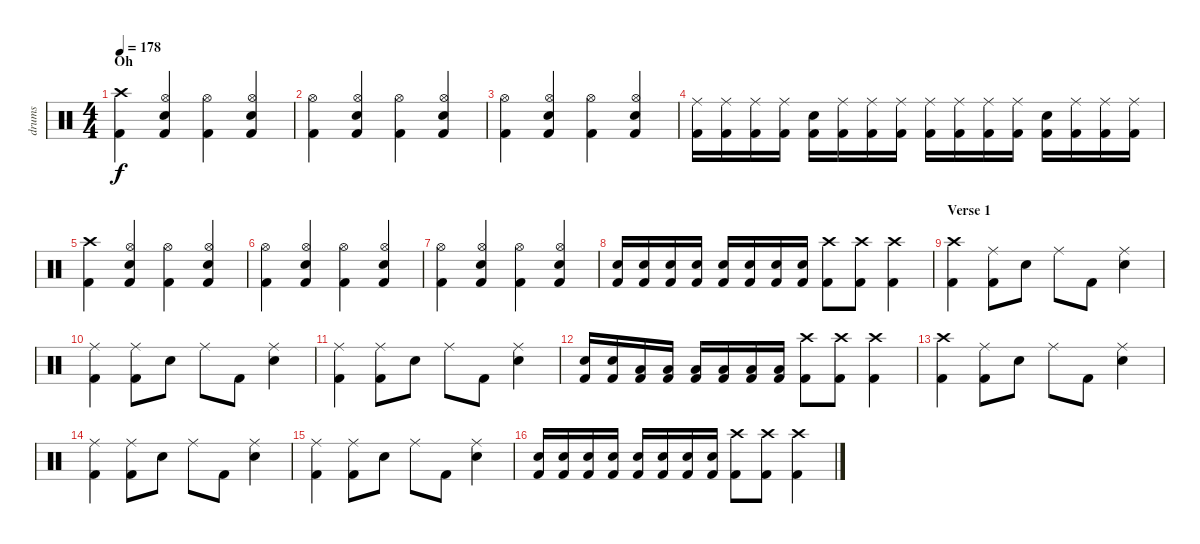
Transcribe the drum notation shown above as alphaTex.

\track ("drums" "drums") {instrument percussion}
\staff {score}
\articulation defaults
\ts (4 4)
\section ("" "Oh")
\tempo 178
\clef neutral
\ks c
("Crash high (hit)" "Kick (hit) 2").4{dy f} ("Hi-Hat (open)" "Electric Snare (hit)" "Kick (hit) 2").4 ("Hi-Hat (open)" "Kick (hit) 2").4 ("Hi-Hat (open)" "Electric Snare (hit)" "Kick (hit) 2").4 |
("Hi-Hat (open)" "Kick (hit) 2").4 ("Hi-Hat (open)" "Electric Snare (hit)" "Kick (hit) 2").4 ("Hi-Hat (open)" "Kick (hit) 2").4 ("Hi-Hat (open)" "Electric Snare (hit)" "Kick (hit) 2").4 |
("Hi-Hat (open)" "Kick (hit) 2").4 ("Hi-Hat (open)" "Electric Snare (hit)" "Kick (hit) 2").4 ("Hi-Hat (open)" "Kick (hit) 2").4 ("Hi-Hat (open)" "Electric Snare (hit)" "Kick (hit) 2").4 |
("Ride (middle)" "Kick (hit) 2").16 ("Ride (middle)" "Kick (hit) 2").16 ("Ride (middle)" "Kick (hit) 2").16 ("Ride (middle)" "Kick (hit) 2").16 ("Electric Snare (hit)" "Kick (hit) 2").16 ("Ride (middle)" "Kick (hit) 2").16 ("Ride (middle)" "Kick (hit) 2").16 ("Ride (middle)" "Kick (hit) 2").16 ("Ride (middle)" "Kick (hit) 2").16 ("Ride (middle)" "Kick (hit) 2").16 ("Ride (middle)" "Kick (hit) 2").16 ("Ride (middle)" "Kick (hit) 2").16 ("Electric Snare (hit)" "Kick (hit) 2").16 ("Ride (middle)" "Kick (hit) 2").16 ("Ride (middle)" "Kick (hit) 2").16 ("Ride (middle)" "Kick (hit) 2").16 |
("Crash high (hit)" "Kick (hit) 2").4 ("Hi-Hat (open)" "Electric Snare (hit)" "Kick (hit) 2").4 ("Hi-Hat (open)" "Kick (hit) 2").4 ("Hi-Hat (open)" "Electric Snare (hit)" "Kick (hit) 2").4 |
("Hi-Hat (open)" "Kick (hit) 2").4 ("Hi-Hat (open)" "Electric Snare (hit)" "Kick (hit) 2").4 ("Hi-Hat (open)" "Kick (hit) 2").4 ("Hi-Hat (open)" "Electric Snare (hit)" "Kick (hit) 2").4 |
("Hi-Hat (open)" "Kick (hit) 2").4 ("Hi-Hat (open)" "Electric Snare (hit)" "Kick (hit) 2").4 ("Hi-Hat (open)" "Kick (hit) 2").4 ("Hi-Hat (open)" "Electric Snare (hit)" "Kick (hit) 2").4 |
("Electric Snare (hit)" "Kick (hit) 2").16 ("Electric Snare (hit)" "Kick (hit) 2").16 ("Electric Snare (hit)" "Kick (hit) 2").16 ("Electric Snare (hit)" "Kick (hit) 2").16 ("Electric Snare (hit)" "Kick (hit) 2").16 ("Electric Snare (hit)" "Kick (hit) 2").16 ("Electric Snare (hit)" "Kick (hit) 2").16 ("Electric Snare (hit)" "Kick (hit) 2").16 ("Crash high (hit)" "Kick (hit) 2").8 ("Crash high (hit)" "Kick (hit) 2").8 ("Crash high (hit)" "Kick (hit) 2").4 |
\section ("" "Verse 1")
("Crash high (hit)" "Kick (hit) 2").4 ("Ride (middle)" "Kick (hit) 2").8 "Electric Snare (hit)".8 "Ride (middle)".8 "Kick (hit) 2".8 ("Ride (middle)" "Electric Snare (hit)").4 |
("Ride (middle)" "Kick (hit) 2").4 ("Ride (middle)" "Kick (hit) 2").8 "Electric Snare (hit)".8 "Ride (middle)".8 "Kick (hit) 2".8 ("Ride (middle)" "Electric Snare (hit)").4 |
("Ride (middle)" "Kick (hit) 2").4 ("Ride (middle)" "Kick (hit) 2").8 "Electric Snare (hit)".8 "Ride (middle)".8 "Kick (hit) 2".8 ("Ride (middle)" "Electric Snare (hit)").4 |
("Electric Snare (hit)" "Kick (hit) 2").16 ("Electric Snare (hit)" "Kick (hit) 2").16 ("Low Tom (hit)" "Kick (hit) 2").16 ("Low Tom (hit)" "Kick (hit) 2").16 ("Low Tom (hit)" "Kick (hit) 2").16 ("Low Tom (hit)" "Kick (hit) 2").16 ("Low Tom (hit)" "Kick (hit) 2").16 ("Low Tom (hit)" "Kick (hit) 2").16 ("Crash high (hit)" "Kick (hit) 2").8 ("Crash high (hit)" "Kick (hit) 2").8 ("Crash high (hit)" "Kick (hit) 2").4 |
("Crash high (hit)" "Kick (hit) 2").4 ("Ride (middle)" "Kick (hit) 2").8 "Electric Snare (hit)".8 "Ride (middle)".8 "Kick (hit) 2".8 ("Ride (middle)" "Electric Snare (hit)").4 |
("Ride (middle)" "Kick (hit) 2").4 ("Ride (middle)" "Kick (hit) 2").8 "Electric Snare (hit)".8 "Ride (middle)".8 "Kick (hit) 2".8 ("Ride (middle)" "Electric Snare (hit)").4 |
("Ride (middle)" "Kick (hit) 2").4 ("Ride (middle)" "Kick (hit) 2").8 "Electric Snare (hit)".8 "Ride (middle)".8 "Kick (hit) 2".8 ("Ride (middle)" "Electric Snare (hit)").4 |
("Electric Snare (hit)" "Kick (hit) 2").16 ("Electric Snare (hit)" "Kick (hit) 2").16 ("Electric Snare (hit)" "Kick (hit) 2").16 ("Electric Snare (hit)" "Kick (hit) 2").16 ("Electric Snare (hit)" "Kick (hit) 2").16 ("Electric Snare (hit)" "Kick (hit) 2").16 ("Electric Snare (hit)" "Kick (hit) 2").16 ("Electric Snare (hit)" "Kick (hit) 2").16 ("Crash high (hit)" "Kick (hit) 2").8 ("Crash high (hit)" "Kick (hit) 2").8 ("Crash high (hit)" "Kick (hit) 2").4
